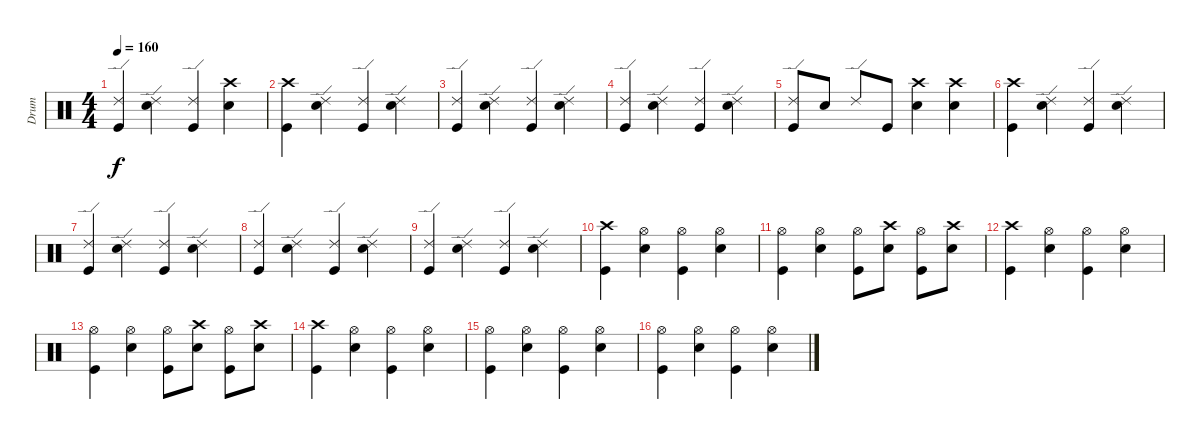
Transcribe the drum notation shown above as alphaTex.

\track ("Drum" "Drum") {instrument percussion}
\staff {score}
\articulation defaults
\ts (4 4)
\tempo 160
\clef neutral
\ks c
("Ride (edge) 2" "Kick (hit)").4{dy f} ("Ride (edge) 2" "Snare (hit) 2").4 ("Ride (edge) 2" "Kick (hit)").4 ("Crash high (hit)" "Snare (hit) 2").4 |
("Crash high (hit)" "Kick (hit)").4 ("Ride (edge) 2" "Snare (hit) 2").4 ("Ride (edge) 2" "Kick (hit)").4 ("Ride (edge) 2" "Snare (hit) 2").4 |
("Ride (edge) 2" "Kick (hit)").4 ("Ride (edge) 2" "Snare (hit) 2").4 ("Ride (edge) 2" "Kick (hit)").4 ("Ride (edge) 2" "Snare (hit) 2").4 |
("Ride (edge) 2" "Kick (hit)").4 ("Ride (edge) 2" "Snare (hit) 2").4 ("Ride (edge) 2" "Kick (hit)").4 ("Ride (edge) 2" "Snare (hit) 2").4 |
("Ride (edge) 2" "Kick (hit)").8 "Snare (hit) 2".8 "Ride (edge) 2".8 "Kick (hit)".8 ("Crash high (hit)" "Snare (hit) 2").4 ("Crash high (hit)" "Snare (hit) 2").4 |
("Crash high (hit)" "Kick (hit)").4 ("Ride (edge) 2" "Snare (hit) 2").4 ("Ride (edge) 2" "Kick (hit)").4 ("Ride (edge) 2" "Snare (hit) 2").4 |
("Ride (edge) 2" "Kick (hit)").4 ("Ride (edge) 2" "Snare (hit) 2").4 ("Ride (edge) 2" "Kick (hit)").4 ("Ride (edge) 2" "Snare (hit) 2").4 |
("Ride (edge) 2" "Kick (hit)").4 ("Ride (edge) 2" "Snare (hit) 2").4 ("Ride (edge) 2" "Kick (hit)").4 ("Ride (edge) 2" "Snare (hit) 2").4 |
("Ride (edge) 2" "Kick (hit)").4 ("Ride (edge) 2" "Snare (hit) 2").4 ("Ride (edge) 2" "Kick (hit)").4 ("Ride (edge) 2" "Snare (hit) 2").4 |
("Crash high (hit)" "Kick (hit)").4 ("Hi-Hat (open)" "Snare (hit) 2").4 ("Hi-Hat (open)" "Kick (hit)").4 ("Hi-Hat (open)" "Snare (hit) 2").4 |
("Hi-Hat (open)" "Kick (hit)").4 ("Hi-Hat (open)" "Snare (hit) 2").4 ("Hi-Hat (open)" "Kick (hit)").8 ("Crash high (hit)" "Snare (hit) 2").8 ("Hi-Hat (open)" "Kick (hit)").8 ("Crash high (hit)" "Snare (hit) 2").8 |
("Crash high (hit)" "Kick (hit)").4 ("Hi-Hat (open)" "Snare (hit) 2").4 ("Hi-Hat (open)" "Kick (hit)").4 ("Hi-Hat (open)" "Snare (hit) 2").4 |
("Hi-Hat (open)" "Kick (hit)").4 ("Hi-Hat (open)" "Snare (hit) 2").4 ("Hi-Hat (open)" "Kick (hit)").8 ("Crash high (hit)" "Snare (hit) 2").8 ("Hi-Hat (open)" "Kick (hit)").8 ("Crash high (hit)" "Snare (hit) 2").8 |
("Crash high (hit)" "Kick (hit)").4 ("Hi-Hat (open)" "Snare (hit) 2").4 ("Hi-Hat (open)" "Kick (hit)").4 ("Hi-Hat (open)" "Snare (hit) 2").4 |
("Hi-Hat (open)" "Kick (hit)").4 ("Hi-Hat (open)" "Snare (hit) 2").4 ("Hi-Hat (open)" "Kick (hit)").4 ("Hi-Hat (open)" "Snare (hit) 2").4 |
("Hi-Hat (open)" "Kick (hit)").4 ("Hi-Hat (open)" "Snare (hit) 2").4 ("Hi-Hat (open)" "Kick (hit)").4 ("Hi-Hat (open)" "Snare (hit) 2").4
